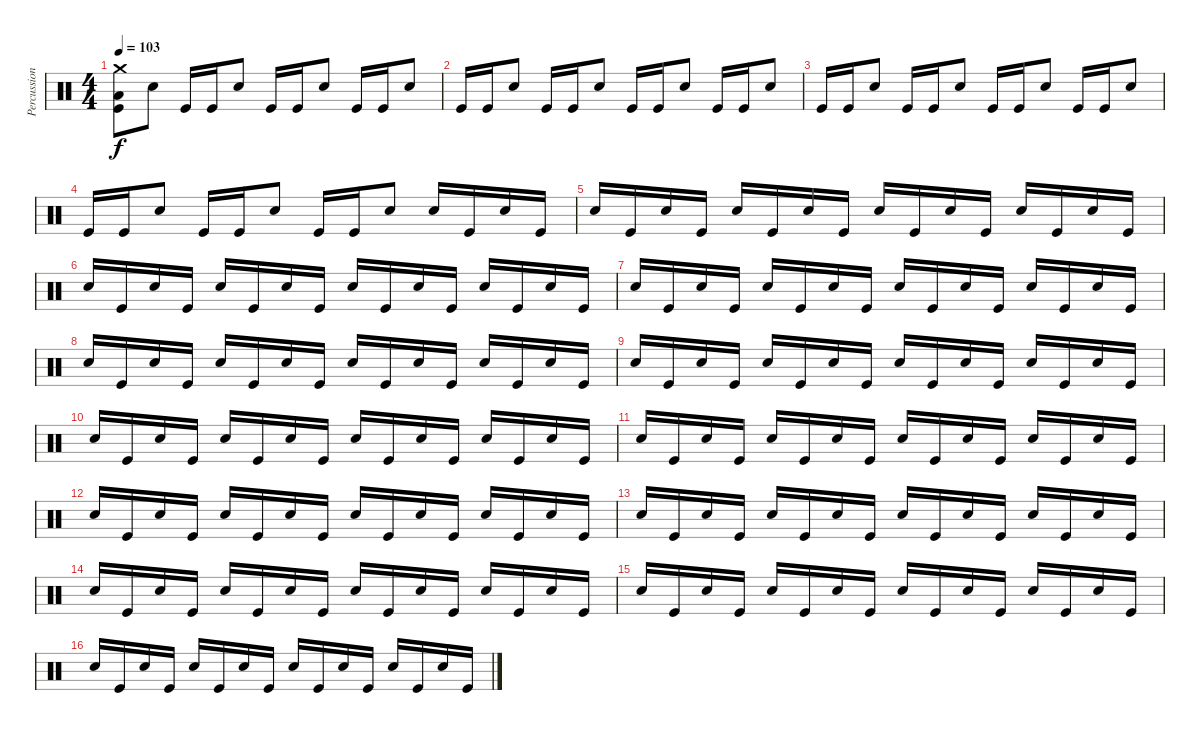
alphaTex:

\track ("Percussion" "Percussion") {instrument percussion}
\staff {score}
\articulation defaults
\ts (4 4)
\tempo 103
\clef neutral
\ks c
("Crash medium (hit)" "Low Floor Tom (hit)" "Kick (hit)").8{dy f} "Electric Snare (hit)".8 "Kick (hit)".16 "Kick (hit)".16 "Electric Snare (hit)".8 "Kick (hit)".16 "Kick (hit)".16 "Electric Snare (hit)".8 "Kick (hit)".16 "Kick (hit)".16 "Electric Snare (hit)".8 |
"Kick (hit)".16 "Kick (hit)".16 "Electric Snare (hit)".8 "Kick (hit)".16 "Kick (hit)".16 "Electric Snare (hit)".8 "Kick (hit)".16 "Kick (hit)".16 "Electric Snare (hit)".8 "Kick (hit)".16 "Kick (hit)".16 "Electric Snare (hit)".8 |
"Kick (hit)".16 "Kick (hit)".16 "Electric Snare (hit)".8 "Kick (hit)".16 "Kick (hit)".16 "Electric Snare (hit)".8 "Kick (hit)".16 "Kick (hit)".16 "Electric Snare (hit)".8 "Kick (hit)".16 "Kick (hit)".16 "Electric Snare (hit)".8 |
"Kick (hit)".16 "Kick (hit)".16 "Electric Snare (hit)".8 "Kick (hit)".16 "Kick (hit)".16 "Electric Snare (hit)".8 "Kick (hit)".16 "Kick (hit)".16 "Electric Snare (hit)".8 "Electric Snare (hit)".16 "Kick (hit)".16 "Electric Snare (hit)".16 "Kick (hit)".16 |
"Electric Snare (hit)".16 "Kick (hit)".16 "Electric Snare (hit)".16 "Kick (hit)".16 "Electric Snare (hit)".16 "Kick (hit)".16 "Electric Snare (hit)".16 "Kick (hit)".16 "Electric Snare (hit)".16 "Kick (hit)".16 "Electric Snare (hit)".16 "Kick (hit)".16 "Electric Snare (hit)".16 "Kick (hit)".16 "Electric Snare (hit)".16 "Kick (hit)".16 |
"Electric Snare (hit)".16 "Kick (hit)".16 "Electric Snare (hit)".16 "Kick (hit)".16 "Electric Snare (hit)".16 "Kick (hit)".16 "Electric Snare (hit)".16 "Kick (hit)".16 "Electric Snare (hit)".16 "Kick (hit)".16 "Electric Snare (hit)".16 "Kick (hit)".16 "Electric Snare (hit)".16 "Kick (hit)".16 "Electric Snare (hit)".16 "Kick (hit)".16 |
"Electric Snare (hit)".16{volume 12} "Kick (hit)".16 "Electric Snare (hit)".16 "Kick (hit)".16 "Electric Snare (hit)".16 "Kick (hit)".16 "Electric Snare (hit)".16 "Kick (hit)".16 "Electric Snare (hit)".16 "Kick (hit)".16 "Electric Snare (hit)".16 "Kick (hit)".16 "Electric Snare (hit)".16 "Kick (hit)".16 "Electric Snare (hit)".16 "Kick (hit)".16 |
"Electric Snare (hit)".16{volume 11} "Kick (hit)".16 "Electric Snare (hit)".16 "Kick (hit)".16 "Electric Snare (hit)".16 "Kick (hit)".16 "Electric Snare (hit)".16 "Kick (hit)".16 "Electric Snare (hit)".16 "Kick (hit)".16 "Electric Snare (hit)".16 "Kick (hit)".16 "Electric Snare (hit)".16 "Kick (hit)".16 "Electric Snare (hit)".16 "Kick (hit)".16 |
"Electric Snare (hit)".16{volume 10} "Kick (hit)".16 "Electric Snare (hit)".16 "Kick (hit)".16 "Electric Snare (hit)".16 "Kick (hit)".16 "Electric Snare (hit)".16 "Kick (hit)".16 "Electric Snare (hit)".16 "Kick (hit)".16 "Electric Snare (hit)".16 "Kick (hit)".16 "Electric Snare (hit)".16 "Kick (hit)".16 "Electric Snare (hit)".16 "Kick (hit)".16 |
"Electric Snare (hit)".16{volume 9} "Kick (hit)".16 "Electric Snare (hit)".16 "Kick (hit)".16 "Electric Snare (hit)".16 "Kick (hit)".16 "Electric Snare (hit)".16 "Kick (hit)".16 "Electric Snare (hit)".16 "Kick (hit)".16 "Electric Snare (hit)".16 "Kick (hit)".16 "Electric Snare (hit)".16 "Kick (hit)".16 "Electric Snare (hit)".16 "Kick (hit)".16 |
"Electric Snare (hit)".16{volume 8} "Kick (hit)".16 "Electric Snare (hit)".16 "Kick (hit)".16 "Electric Snare (hit)".16 "Kick (hit)".16 "Electric Snare (hit)".16 "Kick (hit)".16 "Electric Snare (hit)".16 "Kick (hit)".16 "Electric Snare (hit)".16 "Kick (hit)".16 "Electric Snare (hit)".16 "Kick (hit)".16 "Electric Snare (hit)".16 "Kick (hit)".16 |
"Electric Snare (hit)".16{volume 7} "Kick (hit)".16 "Electric Snare (hit)".16 "Kick (hit)".16 "Electric Snare (hit)".16 "Kick (hit)".16 "Electric Snare (hit)".16 "Kick (hit)".16 "Electric Snare (hit)".16 "Kick (hit)".16 "Electric Snare (hit)".16 "Kick (hit)".16 "Electric Snare (hit)".16 "Kick (hit)".16 "Electric Snare (hit)".16 "Kick (hit)".16 |
"Electric Snare (hit)".16{volume 6} "Kick (hit)".16 "Electric Snare (hit)".16 "Kick (hit)".16 "Electric Snare (hit)".16 "Kick (hit)".16 "Electric Snare (hit)".16 "Kick (hit)".16 "Electric Snare (hit)".16 "Kick (hit)".16 "Electric Snare (hit)".16 "Kick (hit)".16 "Electric Snare (hit)".16 "Kick (hit)".16 "Electric Snare (hit)".16 "Kick (hit)".16 |
"Electric Snare (hit)".16{volume 5} "Kick (hit)".16 "Electric Snare (hit)".16 "Kick (hit)".16 "Electric Snare (hit)".16 "Kick (hit)".16 "Electric Snare (hit)".16 "Kick (hit)".16 "Electric Snare (hit)".16 "Kick (hit)".16 "Electric Snare (hit)".16 "Kick (hit)".16 "Electric Snare (hit)".16 "Kick (hit)".16 "Electric Snare (hit)".16 "Kick (hit)".16 |
"Electric Snare (hit)".16{volume 4} "Kick (hit)".16 "Electric Snare (hit)".16 "Kick (hit)".16 "Electric Snare (hit)".16 "Kick (hit)".16 "Electric Snare (hit)".16 "Kick (hit)".16 "Electric Snare (hit)".16 "Kick (hit)".16 "Electric Snare (hit)".16 "Kick (hit)".16 "Electric Snare (hit)".16 "Kick (hit)".16 "Electric Snare (hit)".16 "Kick (hit)".16 |
"Electric Snare (hit)".16{volume 3} "Kick (hit)".16 "Electric Snare (hit)".16 "Kick (hit)".16 "Electric Snare (hit)".16 "Kick (hit)".16 "Electric Snare (hit)".16 "Kick (hit)".16 "Electric Snare (hit)".16 "Kick (hit)".16 "Electric Snare (hit)".16 "Kick (hit)".16 "Electric Snare (hit)".16 "Kick (hit)".16 "Electric Snare (hit)".16 "Kick (hit)".16
